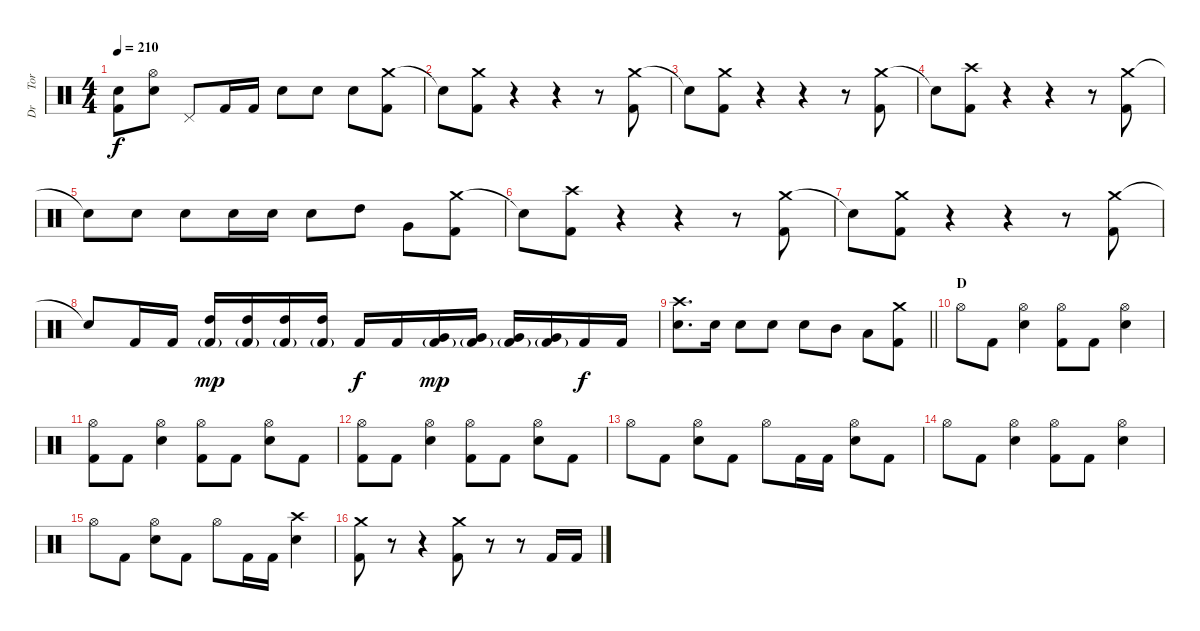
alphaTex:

\track ("Dr     Tora" "Dr     Tor") {instrument percussion}
\staff {score}
\articulation defaults
\ts (4 4)
\tempo 210
\clef neutral
\ks c
("Snare (hit)"{t} "Kick (hit) 2").8{dy f} ("Hi-Hat (open)" "Electric Snare (hit)").8 "Pedal Hi-Hat (hit)".8 "Kick (hit) 2".16 "Kick (hit) 2".16 "Electric Snare (hit)".8 "Electric Snare (hit)".8 "Electric Snare (hit)".8 ("Crash medium (hit)" "Kick (hit) 2").8 |
"Snare (hit)"{t}.8 ("Crash medium (hit)" "Kick (hit) 2").8 r.4 r.4 r.8 ("Crash medium (hit)" "Kick (hit) 2").8 |
"Snare (hit)"{t}.8 ("Crash medium (hit)" "Kick (hit) 2").8 r.4 r.4 r.8 ("Crash medium (hit)" "Kick (hit) 2").8 |
"Snare (hit)"{t}.8 ("Crash high (hit)" "Kick (hit) 2").8 r.4 r.4 r.8 ("Crash medium (hit)" "Kick (hit) 2").8 |
"Snare (hit)"{t}.8 "Electric Snare (hit)".8 "Electric Snare (hit)".8 "Electric Snare (hit)".16 "Electric Snare (hit)".16 "Electric Snare (hit)".8 "High Tom (hit)".8 "Very Low Tom (hit)".8 ("Crash medium (hit)" "Kick (hit) 2").8 |
"Snare (hit)"{t}.8 ("Crash high (hit)" "Kick (hit) 2").8 r.4 r.4 r.8 ("Crash medium (hit)" "Kick (hit) 2").8 |
"Snare (hit)"{t}.8 ("Crash medium (hit)" "Kick (hit) 2").8 r.4 r.4 r.8 ("Crash medium (hit)" "Kick (hit) 2").8 |
"Snare (hit)"{t}.8 "Kick (hit) 2".16 "Kick (hit) 2".16 ("High Tom (hit)" "Kick (hit) 2"{g}).16{dy mp} ("High Tom (hit)" "Kick (hit) 2"{g}).16 ("High Tom (hit)" "Kick (hit) 2"{g}).16 ("High Tom (hit)" "Kick (hit) 2"{g}).16 "Kick (hit) 2".16{dy f} "Kick (hit) 2".16 ("Very Low Tom (hit)" "Kick (hit) 2"{g}).16{dy mp} ("Very Low Tom (hit)" "Kick (hit) 2"{g}).16 ("Very Low Tom (hit)" "Kick (hit) 2"{g}).16 ("Very Low Tom (hit)" "Kick (hit) 2"{g}).16 "Kick (hit) 2".16{dy f} "Kick (hit) 2".16 |
\barLineRight lightlight
("Crash high (hit)" "Electric Snare (hit)").8{d} "Electric Snare (hit)".16 "Electric Snare (hit)".8 "Electric Snare (hit)".8 "Electric Snare (hit)".8 "Mid Tom (hit)".8 "Low Tom (hit)".8 ("Crash medium (hit)" "Kick (hit) 2").8 |
\section ("" "D")
"Hi-Hat (open)".8 "Kick (hit) 2".8 ("Hi-Hat (open)" "Electric Snare (hit)").4 ("Hi-Hat (open)" "Kick (hit) 2").8 "Kick (hit) 2".8 ("Hi-Hat (open)" "Electric Snare (hit)").4 |
("Hi-Hat (open)" "Kick (hit) 2").8 "Kick (hit) 2".8 ("Hi-Hat (open)" "Electric Snare (hit)").4 ("Hi-Hat (open)" "Kick (hit) 2").8 "Kick (hit) 2".8 ("Hi-Hat (open)" "Electric Snare (hit)").8 "Kick (hit) 2".8 |
("Hi-Hat (open)" "Kick (hit) 2").8 "Kick (hit) 2".8 ("Hi-Hat (open)" "Electric Snare (hit)").4 ("Hi-Hat (open)" "Kick (hit) 2").8 "Kick (hit) 2".8 ("Hi-Hat (open)" "Electric Snare (hit)").8 "Kick (hit) 2".8 |
"Hi-Hat (open)".8 "Kick (hit) 2".8 ("Hi-Hat (open)" "Electric Snare (hit)").8 "Kick (hit) 2".8 "Hi-Hat (open)".8 "Kick (hit) 2".16 "Kick (hit) 2".16 ("Hi-Hat (open)" "Electric Snare (hit)").8 "Kick (hit) 2".8 |
"Hi-Hat (open)".8 "Kick (hit) 2".8 ("Hi-Hat (open)" "Electric Snare (hit)").4 ("Hi-Hat (open)" "Kick (hit) 2").8 "Kick (hit) 2".8 ("Hi-Hat (open)" "Electric Snare (hit)").4 |
"Hi-Hat (open)".8 "Kick (hit) 2".8 ("Hi-Hat (open)" "Electric Snare (hit)").8 "Kick (hit) 2".8 "Hi-Hat (open)".8 "Kick (hit) 2".16 "Kick (hit) 2".16 ("Crash high (hit)" "Electric Snare (hit)").4 |
("Crash medium (hit)" "Kick (hit) 2").8 r.8 r.4 ("Crash medium (hit)" "Kick (hit) 2").8 r.8 r.8 "Kick (hit) 2".16 "Kick (hit) 2".16
